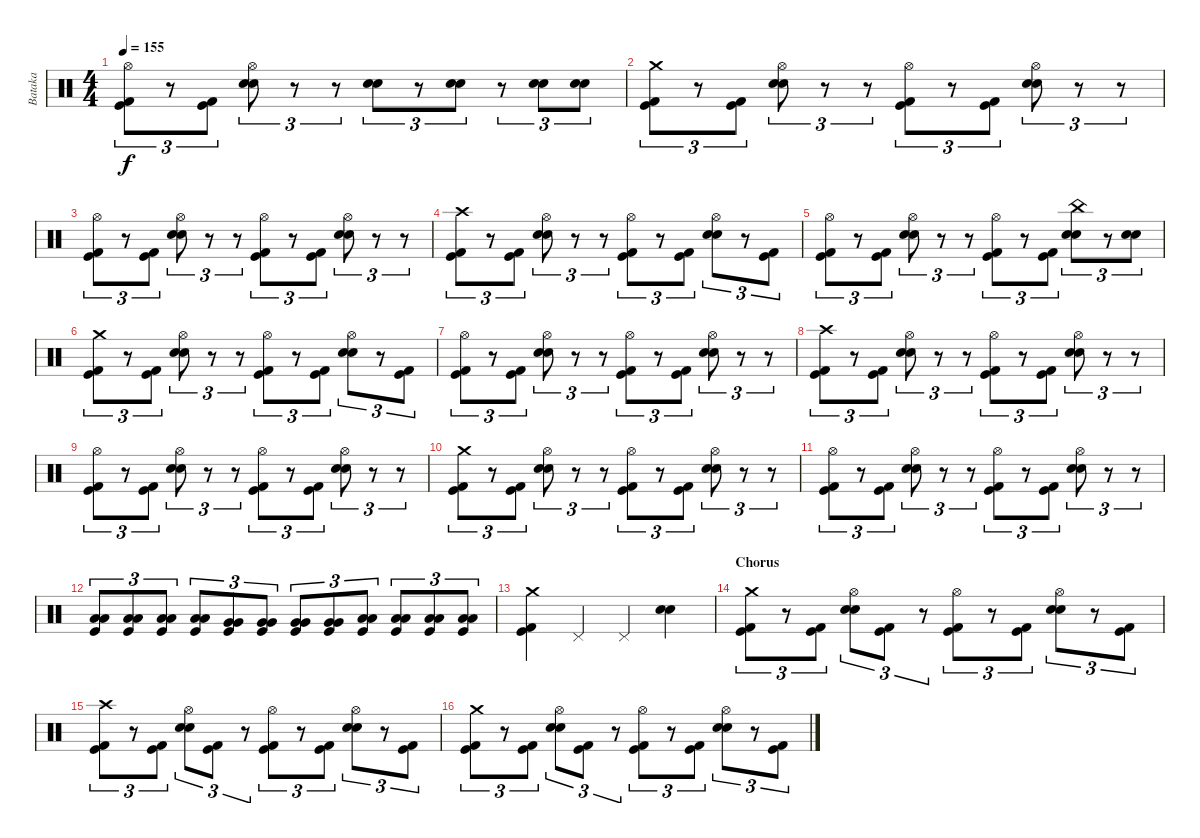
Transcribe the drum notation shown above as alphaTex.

\track ("Bataka" "Bataka") {instrument percussion}
\staff {score}
\articulation defaults
\ts (4 4)
\tempo 155
\clef neutral
\ks c
("Hi-Hat (open)" "Kick (hit) 2" "Kick (hit)").8{tu (3 2) dy f} r.8{tu (3 2)} ("Kick (hit) 2" "Kick (hit)").8{tu (3 2)} ("Hi-Hat (open)" "Snare (hit) 2" "Snare (hit) 2").8{tu (3 2)} r.8{tu (3 2)} r.8{tu (3 2)} ("Snare (hit) 2" "Snare (hit) 2").8{tu (3 2)} r.8{tu (3 2)} ("Snare (hit) 2" "Snare (hit) 2").8{tu (3 2)} r.8{tu (3 2)} ("Snare (hit) 2" "Snare (hit) 2").8{tu (3 2)} ("Snare (hit) 2" "Snare (hit) 2").8{tu (3 2)} |
("Crash medium (hit)" "Kick (hit) 2" "Kick (hit)").8{tu (3 2)} r.8{tu (3 2)} ("Kick (hit) 2" "Kick (hit)").8{tu (3 2)} ("Hi-Hat (open)" "Snare (hit) 2" "Snare (hit) 2").8{tu (3 2)} r.8{tu (3 2)} r.8{tu (3 2)} ("Hi-Hat (open)" "Kick (hit) 2" "Kick (hit)").8{tu (3 2)} r.8{tu (3 2)} ("Kick (hit) 2" "Kick (hit)").8{tu (3 2)} ("Hi-Hat (open)" "Snare (hit) 2" "Snare (hit) 2").8{tu (3 2)} r.8{tu (3 2)} r.8{tu (3 2)} |
("Hi-Hat (open)" "Kick (hit) 2" "Kick (hit)").8{tu (3 2)} r.8{tu (3 2)} ("Kick (hit) 2" "Kick (hit)").8{tu (3 2)} ("Hi-Hat (open)" "Snare (hit) 2" "Snare (hit) 2").8{tu (3 2)} r.8{tu (3 2)} r.8{tu (3 2)} ("Hi-Hat (open)" "Kick (hit) 2" "Kick (hit)").8{tu (3 2)} r.8{tu (3 2)} ("Kick (hit) 2" "Kick (hit)").8{tu (3 2)} ("Hi-Hat (open)" "Snare (hit) 2" "Snare (hit) 2").8{tu (3 2)} r.8{tu (3 2)} r.8{tu (3 2)} |
("Crash high (hit)" "Kick (hit) 2" "Kick (hit)").8{tu (3 2)} r.8{tu (3 2)} ("Kick (hit) 2" "Kick (hit)").8{tu (3 2)} ("Hi-Hat (open)" "Snare (hit) 2" "Snare (hit) 2").8{tu (3 2)} r.8{tu (3 2)} r.8{tu (3 2)} ("Hi-Hat (open)" "Kick (hit) 2" "Kick (hit)").8{tu (3 2)} r.8{tu (3 2)} ("Kick (hit) 2" "Kick (hit)").8{tu (3 2)} ("Hi-Hat (open)" "Snare (hit) 2" "Snare (hit) 2").8{tu (3 2)} r.8{tu (3 2)} ("Kick (hit) 2" "Kick (hit)").8{tu (3 2)} |
("Hi-Hat (open)" "Kick (hit) 2" "Kick (hit)").8{tu (3 2)} r.8{tu (3 2)} ("Kick (hit) 2" "Kick (hit)").8{tu (3 2)} ("Hi-Hat (open)" "Snare (hit) 2" "Snare (hit) 2").8{tu (3 2)} r.8{tu (3 2)} r.8{tu (3 2)} ("Hi-Hat (open)" "Kick (hit) 2" "Kick (hit)").8{tu (3 2)} r.8{tu (3 2)} ("Kick (hit) 2" "Kick (hit)").8{tu (3 2)} ("China (hit)" "Snare (hit) 2" "Snare (hit) 2").8{tu (3 2)} r.8{tu (3 2)} ("Snare (hit) 2" "Snare (hit) 2").8{tu (3 2)} |
("Crash medium (hit)" "Kick (hit) 2" "Kick (hit)").8{tu (3 2)} r.8{tu (3 2)} ("Kick (hit) 2" "Kick (hit)").8{tu (3 2)} ("Hi-Hat (open)" "Snare (hit) 2" "Snare (hit) 2").8{tu (3 2)} r.8{tu (3 2)} r.8{tu (3 2)} ("Hi-Hat (open)" "Kick (hit) 2" "Kick (hit)").8{tu (3 2)} r.8{tu (3 2)} ("Kick (hit) 2" "Kick (hit)").8{tu (3 2)} ("Hi-Hat (open)" "Snare (hit) 2" "Snare (hit) 2").8{tu (3 2)} r.8{tu (3 2)} ("Kick (hit) 2" "Kick (hit)").8{tu (3 2)} |
("Hi-Hat (open)" "Kick (hit) 2" "Kick (hit)").8{tu (3 2)} r.8{tu (3 2)} ("Kick (hit) 2" "Kick (hit)").8{tu (3 2)} ("Hi-Hat (open)" "Snare (hit) 2" "Snare (hit) 2").8{tu (3 2)} r.8{tu (3 2)} r.8{tu (3 2)} ("Hi-Hat (open)" "Kick (hit) 2" "Kick (hit)").8{tu (3 2)} r.8{tu (3 2)} ("Kick (hit) 2" "Kick (hit)").8{tu (3 2)} ("Hi-Hat (open)" "Snare (hit) 2" "Snare (hit) 2").8{tu (3 2)} r.8{tu (3 2)} r.8{tu (3 2)} |
("Crash high (hit)" "Kick (hit) 2" "Kick (hit)").8{tu (3 2)} r.8{tu (3 2)} ("Kick (hit) 2" "Kick (hit)").8{tu (3 2)} ("Hi-Hat (open)" "Snare (hit) 2" "Snare (hit) 2").8{tu (3 2)} r.8{tu (3 2)} r.8{tu (3 2)} ("Hi-Hat (open)" "Kick (hit) 2" "Kick (hit)").8{tu (3 2)} r.8{tu (3 2)} ("Kick (hit) 2" "Kick (hit)").8{tu (3 2)} ("Hi-Hat (open)" "Snare (hit) 2" "Snare (hit) 2").8{tu (3 2)} r.8{tu (3 2)} r.8{tu (3 2)} |
("Hi-Hat (open)" "Kick (hit) 2" "Kick (hit)").8{tu (3 2)} r.8{tu (3 2)} ("Kick (hit) 2" "Kick (hit)").8{tu (3 2)} ("Hi-Hat (open)" "Snare (hit) 2" "Snare (hit) 2").8{tu (3 2)} r.8{tu (3 2)} r.8{tu (3 2)} ("Hi-Hat (open)" "Kick (hit) 2" "Kick (hit)").8{tu (3 2)} r.8{tu (3 2)} ("Kick (hit) 2" "Kick (hit)").8{tu (3 2)} ("Hi-Hat (open)" "Snare (hit) 2" "Snare (hit) 2").8{tu (3 2)} r.8{tu (3 2)} r.8{tu (3 2)} |
("Crash medium (hit)" "Kick (hit) 2" "Kick (hit)").8{tu (3 2)} r.8{tu (3 2)} ("Kick (hit) 2" "Kick (hit)").8{tu (3 2)} ("Hi-Hat (open)" "Snare (hit) 2" "Snare (hit) 2").8{tu (3 2)} r.8{tu (3 2)} r.8{tu (3 2)} ("Hi-Hat (open)" "Kick (hit) 2" "Kick (hit)").8{tu (3 2)} r.8{tu (3 2)} ("Kick (hit) 2" "Kick (hit)").8{tu (3 2)} ("Hi-Hat (open)" "Snare (hit) 2" "Snare (hit) 2").8{tu (3 2)} r.8{tu (3 2)} r.8{tu (3 2)} |
("Hi-Hat (open)" "Kick (hit) 2" "Kick (hit)").8{tu (3 2)} r.8{tu (3 2)} ("Kick (hit) 2" "Kick (hit)").8{tu (3 2)} ("Hi-Hat (open)" "Snare (hit) 2" "Snare (hit) 2").8{tu (3 2)} r.8{tu (3 2)} r.8{tu (3 2)} ("Hi-Hat (open)" "Kick (hit) 2" "Kick (hit)").8{tu (3 2)} r.8{tu (3 2)} ("Kick (hit) 2" "Kick (hit)").8{tu (3 2)} ("Hi-Hat (open)" "Snare (hit) 2" "Snare (hit) 2").8{tu (3 2)} r.8{tu (3 2)} r.8{tu (3 2)} |
("Low Tom (hit)" "Low Tom (hit)" "Kick (hit)").8{tu (3 2)} ("Low Tom (hit)" "Low Tom (hit)" "Kick (hit)").8{tu (3 2)} ("Low Tom (hit)" "Low Tom (hit)" "Kick (hit)").8{tu (3 2)} ("Low Tom (hit)" "Low Tom (hit)" "Kick (hit)").8{tu (3 2)} ("Very Low Tom (hit)" "Very Low Tom (hit)" "Kick (hit)").8{tu (3 2)} ("Very Low Tom (hit)" "Very Low Tom (hit)" "Kick (hit)").8{tu (3 2)} ("Very Low Tom (hit)" "Very Low Tom (hit)" "Kick (hit)").8{tu (3 2)} ("Very Low Tom (hit)" "Very Low Tom (hit)" "Kick (hit)").8{tu (3 2)} ("Low Floor Tom (hit)" "Low Floor Tom (hit)" "Kick (hit)").8{tu (3 2)} ("Low Floor Tom (hit)" "Low Floor Tom (hit)" "Kick (hit)").8{tu (3 2)} ("Low Floor Tom (hit)" "Low Floor Tom (hit)" "Kick (hit)").8{tu (3 2)} ("Low Floor Tom (hit)" "Low Floor Tom (hit)" "Kick (hit)").8{tu (3 2)} |
("Crash medium (hit)" "Kick (hit) 2" "Kick (hit)").4 "Pedal Hi-Hat (hit)".4 "Pedal Hi-Hat (hit)".4 ("Snare (hit) 2" "Snare (hit) 2").4 |
\section ("" "Chorus")
("Crash medium (hit)" "Kick (hit) 2" "Kick (hit)").8{tu (3 2)} r.8{tu (3 2)} ("Kick (hit) 2" "Kick (hit)").8{tu (3 2)} ("Hi-Hat (open)" "Snare (hit) 2" "Snare (hit) 2").8{tu (3 2)} ("Kick (hit)" "Kick (hit) 2").8{tu (3 2)} r.8{tu (3 2)} ("Hi-Hat (open)" "Kick (hit) 2" "Kick (hit)").8{tu (3 2)} r.8{tu (3 2)} ("Kick (hit) 2" "Kick (hit)").8{tu (3 2)} ("Hi-Hat (open)" "Snare (hit) 2" "Snare (hit) 2").8{tu (3 2)} r.8{tu (3 2)} ("Kick (hit) 2" "Kick (hit)").8{tu (3 2)} |
("Crash high (hit)" "Kick (hit) 2" "Kick (hit)").8{tu (3 2)} r.8{tu (3 2)} ("Kick (hit) 2" "Kick (hit)").8{tu (3 2)} ("Hi-Hat (open)" "Snare (hit) 2" "Snare (hit) 2").8{tu (3 2)} ("Kick (hit) 2" "Kick (hit)").8{tu (3 2)} r.8{tu (3 2)} ("Hi-Hat (open)" "Kick (hit) 2" "Kick (hit)").8{tu (3 2)} r.8{tu (3 2)} ("Kick (hit) 2" "Kick (hit)").8{tu (3 2)} ("Hi-Hat (open)" "Snare (hit) 2" "Snare (hit) 2").8{tu (3 2)} r.8{tu (3 2)} ("Kick (hit) 2" "Kick (hit)").8{tu (3 2)} |
("Crash medium (hit)" "Kick (hit) 2" "Kick (hit)").8{tu (3 2)} r.8{tu (3 2)} ("Kick (hit) 2" "Kick (hit)").8{tu (3 2)} ("Hi-Hat (open)" "Snare (hit) 2" "Snare (hit) 2").8{tu (3 2)} ("Kick (hit) 2" "Kick (hit)").8{tu (3 2)} r.8{tu (3 2)} ("Hi-Hat (open)" "Kick (hit) 2" "Kick (hit)").8{tu (3 2)} r.8{tu (3 2)} ("Kick (hit) 2" "Kick (hit)").8{tu (3 2)} ("Hi-Hat (open)" "Snare (hit) 2" "Snare (hit) 2").8{tu (3 2)} r.8{tu (3 2)} ("Kick (hit) 2" "Kick (hit)").8{tu (3 2)}
